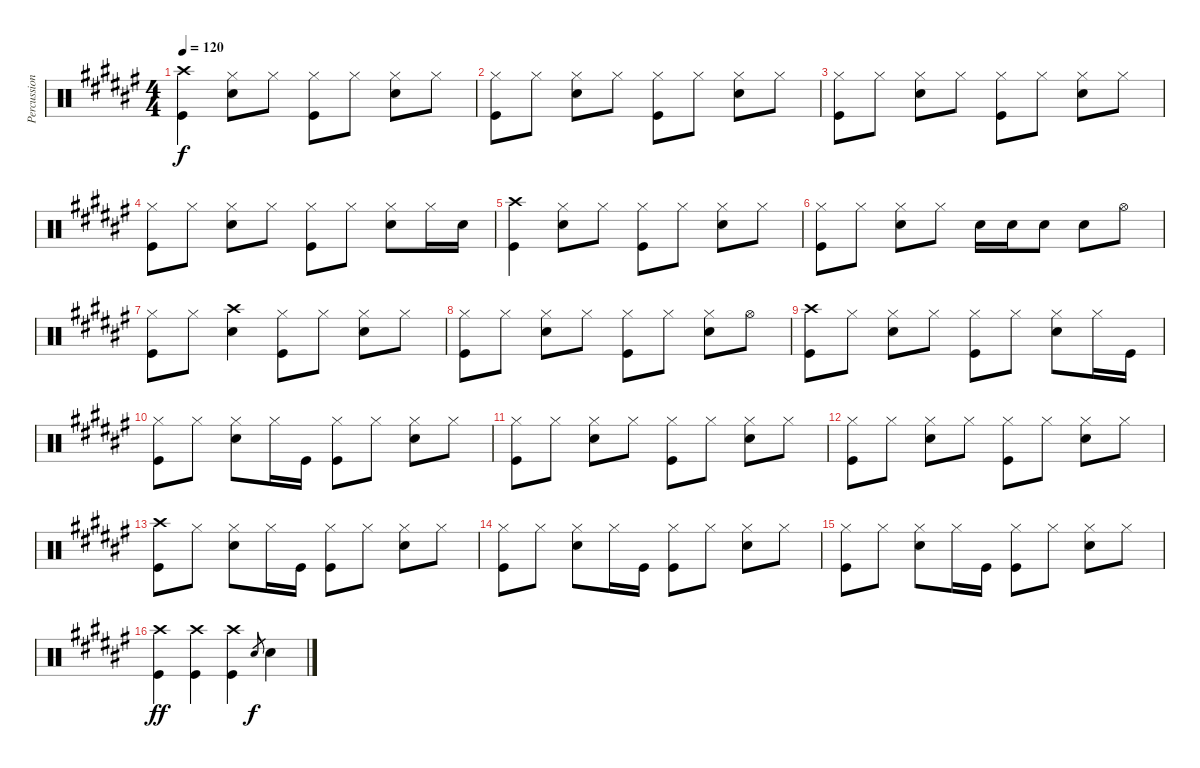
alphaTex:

\track ("Percussion" "Percussion") {instrument percussion}
\staff {score}
\articulation defaults
\ts (4 4)
\tempo 120
\clef neutral
\ks f#
("Crash high (hit)" "Kick (hit)").4{dy f} ("Hi-Hat (closed)" "Snare (hit) 2").8 "Hi-Hat (closed)".8 ("Hi-Hat (closed)" "Kick (hit)").8 "Hi-Hat (closed)".8 ("Hi-Hat (closed)" "Snare (hit) 2").8 "Hi-Hat (closed)".8 |
("Hi-Hat (closed)" "Kick (hit)").8 "Hi-Hat (closed)".8 ("Hi-Hat (closed)" "Snare (hit) 2").8 "Hi-Hat (closed)".8 ("Hi-Hat (closed)" "Kick (hit)").8 "Hi-Hat (closed)".8 ("Hi-Hat (closed)" "Snare (hit) 2").8 "Hi-Hat (closed)".8 |
("Hi-Hat (closed)" "Kick (hit)").8 "Hi-Hat (closed)".8 ("Hi-Hat (closed)" "Snare (hit) 2").8 "Hi-Hat (closed)".8 ("Hi-Hat (closed)" "Kick (hit)").8 "Hi-Hat (closed)".8 ("Hi-Hat (closed)" "Snare (hit) 2").8 "Hi-Hat (closed)".8 |
("Hi-Hat (closed)" "Kick (hit)").8 "Hi-Hat (closed)".8 ("Hi-Hat (closed)" "Snare (hit) 2").8 "Hi-Hat (closed)".8 ("Hi-Hat (closed)" "Kick (hit)").8 "Hi-Hat (closed)".8 ("Hi-Hat (closed)" "Snare (hit) 2").8 "Hi-Hat (closed)".16 "Snare (hit) 2".16 |
("Crash high (hit)" "Kick (hit)").4 ("Hi-Hat (closed)" "Snare (hit) 2").8 "Hi-Hat (closed)".8 ("Hi-Hat (closed)" "Kick (hit)").8 "Hi-Hat (closed)".8 ("Hi-Hat (closed)" "Snare (hit) 2").8 "Hi-Hat (closed)".8 |
("Hi-Hat (closed)" "Kick (hit)").8 "Hi-Hat (closed)".8 ("Hi-Hat (closed)" "Snare (hit) 2").8 "Hi-Hat (closed)".8 "Snare (hit) 2".16 "Snare (hit) 2".16 "Snare (hit) 2".8 "Snare (hit) 2".8 "Hi-Hat (open)".8 |
("Hi-Hat (closed)" "Kick (hit)").8 "Hi-Hat (closed)".8 ("Crash high (hit)" "Snare (hit) 2").4 ("Hi-Hat (closed)" "Kick (hit)").8 "Hi-Hat (closed)".8 ("Hi-Hat (closed)" "Snare (hit) 2").8 "Hi-Hat (closed)".8 |
("Hi-Hat (closed)" "Kick (hit)").8 "Hi-Hat (closed)".8 ("Hi-Hat (closed)" "Snare (hit) 2").8 "Hi-Hat (closed)".8 ("Hi-Hat (closed)" "Kick (hit)").8 "Hi-Hat (closed)".8 ("Hi-Hat (closed)" "Snare (hit) 2").8 "Hi-Hat (open)".8 |
("Crash high (hit)" "Kick (hit)").8 "Hi-Hat (closed)".8 ("Hi-Hat (closed)" "Snare (hit) 2").8 "Hi-Hat (closed)".8 ("Hi-Hat (closed)" "Kick (hit)").8 "Hi-Hat (closed)".8 ("Hi-Hat (closed)" "Snare (hit) 2").8 "Hi-Hat (closed)".16 "Kick (hit)".16 |
("Hi-Hat (closed)" "Kick (hit)").8 "Hi-Hat (closed)".8 ("Hi-Hat (closed)" "Snare (hit) 2").8 "Hi-Hat (closed)".16 "Kick (hit)".16 ("Hi-Hat (closed)" "Kick (hit)").8 "Hi-Hat (closed)".8 ("Hi-Hat (closed)" "Snare (hit) 2").8 "Hi-Hat (closed)".8 |
("Hi-Hat (closed)" "Kick (hit)").8 "Hi-Hat (closed)".8 ("Hi-Hat (closed)" "Snare (hit) 2").8 "Hi-Hat (closed)".8 ("Hi-Hat (closed)" "Kick (hit)").8 "Hi-Hat (closed)".8 ("Hi-Hat (closed)" "Snare (hit) 2").8 "Hi-Hat (closed)".8 |
("Hi-Hat (closed)" "Kick (hit)").8 "Hi-Hat (closed)".8 ("Hi-Hat (closed)" "Snare (hit) 2").8 "Hi-Hat (closed)".8 ("Hi-Hat (closed)" "Kick (hit)").8 "Hi-Hat (closed)".8 ("Hi-Hat (closed)" "Snare (hit) 2").8 "Hi-Hat (closed)".8 |
("Crash high (hit)" "Kick (hit)").8 "Hi-Hat (closed)".8 ("Hi-Hat (closed)" "Snare (hit) 2").8 "Hi-Hat (closed)".16 "Kick (hit)".16 ("Hi-Hat (closed)" "Kick (hit)").8 "Hi-Hat (closed)".8 ("Hi-Hat (closed)" "Snare (hit) 2").8 "Hi-Hat (closed)".8 |
("Hi-Hat (closed)" "Kick (hit)").8 "Hi-Hat (closed)".8 ("Hi-Hat (closed)" "Snare (hit) 2").8 "Hi-Hat (closed)".16 "Kick (hit)".16 ("Hi-Hat (closed)" "Kick (hit)").8 "Hi-Hat (closed)".8 ("Hi-Hat (closed)" "Snare (hit) 2").8 "Hi-Hat (closed)".8 |
("Hi-Hat (closed)" "Kick (hit)").8 "Hi-Hat (closed)".8 ("Hi-Hat (closed)" "Snare (hit) 2").8 "Hi-Hat (closed)".16 "Kick (hit)".16 ("Hi-Hat (closed)" "Kick (hit)").8 "Hi-Hat (closed)".8 ("Hi-Hat (closed)" "Snare (hit) 2").8 "Hi-Hat (closed)".8 |
("Crash high (hit)" "Kick (hit)").4{dy ff} ("Crash high (hit)" "Kick (hit)").4 ("Crash high (hit)" "Kick (hit)").4 "Snare (hit) 2".8{gr dy f} "Snare (hit) 2".4
